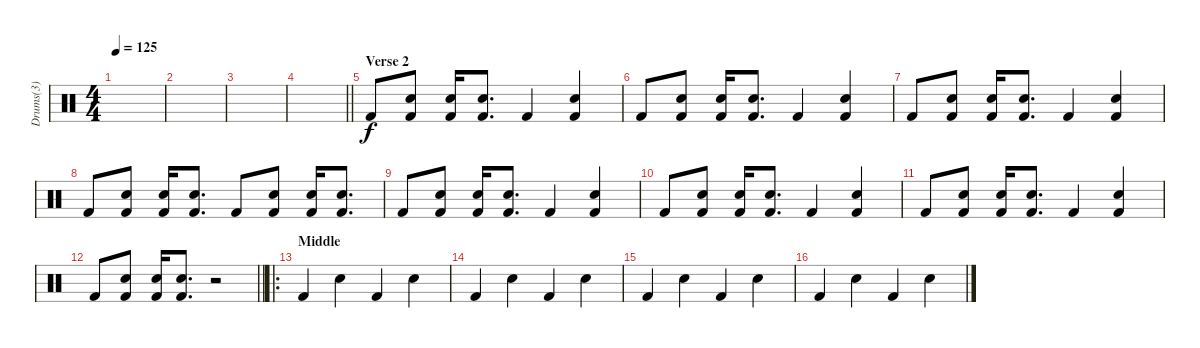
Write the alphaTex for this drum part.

\track ("Drums(3)" "Drums(3)") {instrument percussion}
\staff {score}
\articulation defaults
\ts (4 4)
\tempo 125
\clef neutral
\ks c
|
|
|
\barLineRight lightlight
|
\section ("" "Verse 2")
"Kick (hit) 2".8 ("Snare (hit) 2" "Kick (hit) 2").8 ("Snare (hit) 2" "Kick (hit) 2").16 ("Electric Snare (hit)" "Kick (hit) 2").8{d} "Kick (hit) 2".4 ("Electric Snare (hit)" "Kick (hit) 2").4 |
"Kick (hit) 2".8 ("Snare (hit) 2" "Kick (hit) 2").8 ("Snare (hit) 2" "Kick (hit) 2").16 ("Electric Snare (hit)" "Kick (hit) 2").8{d} "Kick (hit) 2".4 ("Electric Snare (hit)" "Kick (hit) 2").4 |
"Kick (hit) 2".8 ("Snare (hit) 2" "Kick (hit) 2").8 ("Snare (hit) 2" "Kick (hit) 2").16 ("Electric Snare (hit)" "Kick (hit) 2").8{d} "Kick (hit) 2".4 ("Electric Snare (hit)" "Kick (hit) 2").4 |
"Kick (hit) 2".8 ("Snare (hit) 2" "Kick (hit) 2").8 ("Snare (hit) 2" "Kick (hit) 2").16 ("Electric Snare (hit)" "Kick (hit) 2").8{d} "Kick (hit) 2".8 ("Snare (hit) 2" "Kick (hit) 2").8 ("Snare (hit) 2" "Kick (hit) 2").16 ("Electric Snare (hit)" "Kick (hit) 2").8{d} |
"Kick (hit) 2".8 ("Snare (hit) 2" "Kick (hit) 2").8 ("Snare (hit) 2" "Kick (hit) 2").16 ("Electric Snare (hit)" "Kick (hit) 2").8{d} "Kick (hit) 2".4 ("Electric Snare (hit)" "Kick (hit) 2").4 |
"Kick (hit) 2".8 ("Snare (hit) 2" "Kick (hit) 2").8 ("Snare (hit) 2" "Kick (hit) 2").16 ("Electric Snare (hit)" "Kick (hit) 2").8{d} "Kick (hit) 2".4 ("Electric Snare (hit)" "Kick (hit) 2").4 |
"Kick (hit) 2".8 ("Snare (hit) 2" "Kick (hit) 2").8 ("Snare (hit) 2" "Kick (hit) 2").16 ("Electric Snare (hit)" "Kick (hit) 2").8{d} "Kick (hit) 2".4 ("Electric Snare (hit)" "Kick (hit) 2").4 |
\barLineRight lightlight "Kick (hit) 2".8
("Snare (hit) 2" "Kick (hit) 2").8 ("Snare (hit) 2" "Kick (hit) 2").16 ("Electric Snare (hit)" "Kick (hit) 2").8{d} r.2 |
\ro
\section ("" "Middle")
"Kick (hit) 2".4{dy f volume 16} "Electric Snare (hit)".4 "Kick (hit) 2".4 "Electric Snare (hit)".4 |
"Kick (hit) 2".4 "Electric Snare (hit)".4 "Kick (hit) 2".4 "Electric Snare (hit)".4 |
"Kick (hit) 2".4 "Electric Snare (hit)".4 "Kick (hit) 2".4 "Electric Snare (hit)".4 |
"Kick (hit) 2".4 "Electric Snare (hit)".4 "Kick (hit) 2".4 "Electric Snare (hit)".4
